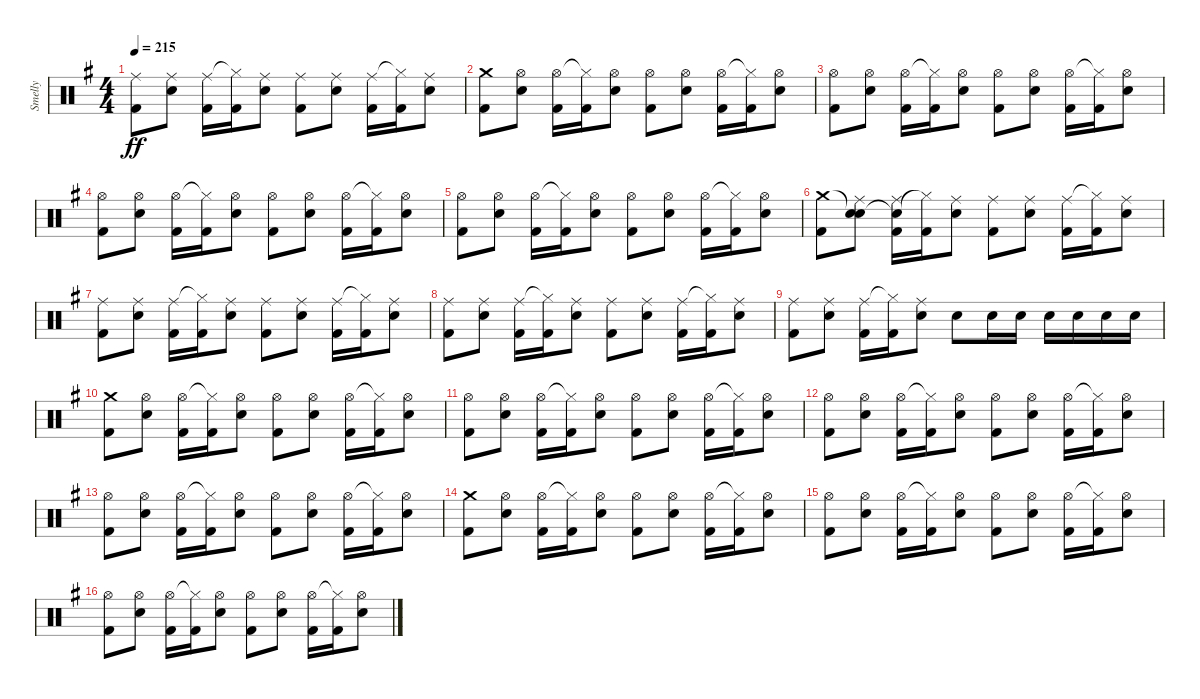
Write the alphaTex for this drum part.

\track ("Smelly" "Smelly") {instrument percussion}
\staff {score}
\articulation defaults
\ts (4 4)
\tempo 215
\clef neutral
\ks eminor
("Ride (middle)" "Kick (hit) 2").8{dy ff} ("Ride (middle)" "Electric Snare (hit)").8 ("Ride (middle)" "Kick (hit) 2").16 ("Hi-Hat (closed)"{t} "Kick (hit) 2").16 ("Ride (middle)" "Electric Snare (hit)").8 ("Ride (middle)" "Kick (hit) 2").8 ("Ride (middle)" "Electric Snare (hit)").8 ("Ride (middle)" "Kick (hit) 2").16 ("Hi-Hat (closed)"{t} "Kick (hit) 2").16 ("Ride (middle)" "Electric Snare (hit)").8 |
("Crash medium (hit)" "Kick (hit) 2").8 ("Hi-Hat (open)" "Electric Snare (hit)").8 ("Hi-Hat (open)" "Kick (hit) 2").16 ("Hi-Hat (closed)"{t} "Kick (hit) 2").16 ("Hi-Hat (open)" "Electric Snare (hit)").8 ("Hi-Hat (open)" "Kick (hit) 2").8 ("Hi-Hat (open)" "Electric Snare (hit)").8 ("Hi-Hat (open)" "Kick (hit) 2").16 ("Hi-Hat (closed)"{t} "Kick (hit) 2").16 ("Hi-Hat (open)" "Electric Snare (hit)").8 |
("Hi-Hat (open)" "Kick (hit) 2").8 ("Hi-Hat (open)" "Electric Snare (hit)").8 ("Hi-Hat (open)" "Kick (hit) 2").16 ("Hi-Hat (closed)"{t} "Kick (hit) 2").16 ("Hi-Hat (open)" "Electric Snare (hit)").8 ("Hi-Hat (open)" "Kick (hit) 2").8 ("Hi-Hat (open)" "Electric Snare (hit)").8 ("Hi-Hat (open)" "Kick (hit) 2").16 ("Hi-Hat (closed)"{t} "Kick (hit) 2").16 ("Hi-Hat (open)" "Electric Snare (hit)").8 |
("Hi-Hat (open)" "Kick (hit) 2").8 ("Hi-Hat (open)" "Electric Snare (hit)").8 ("Hi-Hat (open)" "Kick (hit) 2").16 ("Hi-Hat (closed)"{t} "Kick (hit) 2").16 ("Hi-Hat (open)" "Electric Snare (hit)").8 ("Hi-Hat (open)" "Kick (hit) 2").8 ("Hi-Hat (open)" "Electric Snare (hit)").8 ("Hi-Hat (open)" "Kick (hit) 2").16 ("Hi-Hat (closed)"{t} "Kick (hit) 2").16 ("Hi-Hat (open)" "Electric Snare (hit)").8 |
("Hi-Hat (open)" "Kick (hit) 2").8 ("Hi-Hat (open)" "Electric Snare (hit)").8 ("Hi-Hat (open)" "Kick (hit) 2").16 ("Hi-Hat (closed)"{t} "Kick (hit) 2").16 ("Hi-Hat (open)" "Electric Snare (hit)").8 ("Hi-Hat (open)" "Kick (hit) 2").8 ("Hi-Hat (open)" "Electric Snare (hit)").8 ("Hi-Hat (open)" "Kick (hit) 2").16 ("Hi-Hat (closed)"{t} "Kick (hit) 2").16 ("Hi-Hat (open)" "Electric Snare (hit)").8 |
("Crash medium (hit)" "Kick (hit) 2").8 ("Snare (hit)"{t} "Ride (middle)" "Electric Snare (hit)").8 ("Snare (hit)"{t} "Ride (middle)" "Kick (hit) 2").16 ("Hi-Hat (closed)"{t} "Kick (hit) 2").16 ("Ride (middle)" "Electric Snare (hit)").8 ("Ride (middle)" "Kick (hit) 2").8 ("Ride (middle)" "Electric Snare (hit)").8 ("Ride (middle)" "Kick (hit) 2").16 ("Hi-Hat (closed)"{t} "Kick (hit) 2").16 ("Ride (middle)" "Electric Snare (hit)").8 |
("Ride (middle)" "Kick (hit) 2").8 ("Ride (middle)" "Electric Snare (hit)").8 ("Ride (middle)" "Kick (hit) 2").16 ("Hi-Hat (closed)"{t} "Kick (hit) 2").16 ("Ride (middle)" "Electric Snare (hit)").8 ("Ride (middle)" "Kick (hit) 2").8 ("Ride (middle)" "Electric Snare (hit)").8 ("Ride (middle)" "Kick (hit) 2").16 ("Hi-Hat (closed)"{t} "Kick (hit) 2").16 ("Ride (middle)" "Electric Snare (hit)").8 |
("Ride (middle)" "Kick (hit) 2").8 ("Ride (middle)" "Electric Snare (hit)").8 ("Ride (middle)" "Kick (hit) 2").16 ("Hi-Hat (closed)"{t} "Kick (hit) 2").16 ("Ride (middle)" "Electric Snare (hit)").8 ("Ride (middle)" "Kick (hit) 2").8 ("Ride (middle)" "Electric Snare (hit)").8 ("Ride (middle)" "Kick (hit) 2").16 ("Hi-Hat (closed)"{t} "Kick (hit) 2").16 ("Ride (middle)" "Electric Snare (hit)").8 |
("Ride (middle)" "Kick (hit) 2").8 ("Ride (middle)" "Electric Snare (hit)").8 ("Ride (middle)" "Kick (hit) 2").16 ("Hi-Hat (closed)"{t} "Kick (hit) 2").16 ("Ride (middle)" "Electric Snare (hit)").8 "Electric Snare (hit)".8 "Electric Snare (hit)".16 "Electric Snare (hit)".16 "Electric Snare (hit)".16 "Electric Snare (hit)".16 "Electric Snare (hit)".16 "Electric Snare (hit)".16 |
("Crash medium (hit)" "Kick (hit) 2").8 ("Hi-Hat (open)" "Electric Snare (hit)").8 ("Hi-Hat (open)" "Kick (hit) 2").16 ("Hi-Hat (closed)"{t} "Kick (hit) 2").16 ("Hi-Hat (open)" "Electric Snare (hit)").8 ("Hi-Hat (open)" "Kick (hit) 2").8 ("Hi-Hat (open)" "Electric Snare (hit)").8 ("Hi-Hat (open)" "Kick (hit) 2").16 ("Hi-Hat (closed)"{t} "Kick (hit) 2").16 ("Hi-Hat (open)" "Electric Snare (hit)").8 |
("Hi-Hat (open)" "Kick (hit) 2").8 ("Hi-Hat (open)" "Electric Snare (hit)").8 ("Hi-Hat (open)" "Kick (hit) 2").16 ("Hi-Hat (closed)"{t} "Kick (hit) 2").16 ("Hi-Hat (open)" "Electric Snare (hit)").8 ("Hi-Hat (open)" "Kick (hit) 2").8 ("Hi-Hat (open)" "Electric Snare (hit)").8 ("Hi-Hat (open)" "Kick (hit) 2").16 ("Hi-Hat (closed)"{t} "Kick (hit) 2").16 ("Hi-Hat (open)" "Electric Snare (hit)").8 |
("Hi-Hat (open)" "Kick (hit) 2").8 ("Hi-Hat (open)" "Electric Snare (hit)").8 ("Hi-Hat (open)" "Kick (hit) 2").16 ("Hi-Hat (closed)"{t} "Kick (hit) 2").16 ("Hi-Hat (open)" "Electric Snare (hit)").8 ("Hi-Hat (open)" "Kick (hit) 2").8 ("Hi-Hat (open)" "Electric Snare (hit)").8 ("Hi-Hat (open)" "Kick (hit) 2").16 ("Hi-Hat (closed)"{t} "Kick (hit) 2").16 ("Hi-Hat (open)" "Electric Snare (hit)").8 |
("Hi-Hat (open)" "Kick (hit) 2").8 ("Hi-Hat (open)" "Electric Snare (hit)").8 ("Hi-Hat (open)" "Kick (hit) 2").16 ("Hi-Hat (closed)"{t} "Kick (hit) 2").16 ("Hi-Hat (open)" "Electric Snare (hit)").8 ("Hi-Hat (open)" "Kick (hit) 2").8 ("Hi-Hat (open)" "Electric Snare (hit)").8 ("Hi-Hat (open)" "Kick (hit) 2").16 ("Hi-Hat (closed)"{t} "Kick (hit) 2").16 ("Hi-Hat (open)" "Electric Snare (hit)").8 |
("Crash medium (hit)" "Kick (hit) 2").8 ("Hi-Hat (open)" "Electric Snare (hit)").8 ("Hi-Hat (open)" "Kick (hit) 2").16 ("Hi-Hat (closed)"{t} "Kick (hit) 2").16 ("Hi-Hat (open)" "Electric Snare (hit)").8 ("Hi-Hat (open)" "Kick (hit) 2").8 ("Hi-Hat (open)" "Electric Snare (hit)").8 ("Hi-Hat (open)" "Kick (hit) 2").16 ("Hi-Hat (closed)"{t} "Kick (hit) 2").16 ("Hi-Hat (open)" "Electric Snare (hit)").8 |
("Hi-Hat (open)" "Kick (hit) 2").8 ("Hi-Hat (open)" "Electric Snare (hit)").8 ("Hi-Hat (open)" "Kick (hit) 2").16 ("Hi-Hat (closed)"{t} "Kick (hit) 2").16 ("Hi-Hat (open)" "Electric Snare (hit)").8 ("Hi-Hat (open)" "Kick (hit) 2").8 ("Hi-Hat (open)" "Electric Snare (hit)").8 ("Hi-Hat (open)" "Kick (hit) 2").16 ("Hi-Hat (closed)"{t} "Kick (hit) 2").16 ("Hi-Hat (open)" "Electric Snare (hit)").8 |
("Hi-Hat (open)" "Kick (hit) 2").8 ("Hi-Hat (open)" "Electric Snare (hit)").8 ("Hi-Hat (open)" "Kick (hit) 2").16 ("Hi-Hat (closed)"{t} "Kick (hit) 2").16 ("Hi-Hat (open)" "Electric Snare (hit)").8 ("Hi-Hat (open)" "Kick (hit) 2").8 ("Hi-Hat (open)" "Electric Snare (hit)").8 ("Hi-Hat (open)" "Kick (hit) 2").16 ("Hi-Hat (closed)"{t} "Kick (hit) 2").16 ("Hi-Hat (open)" "Electric Snare (hit)").8
